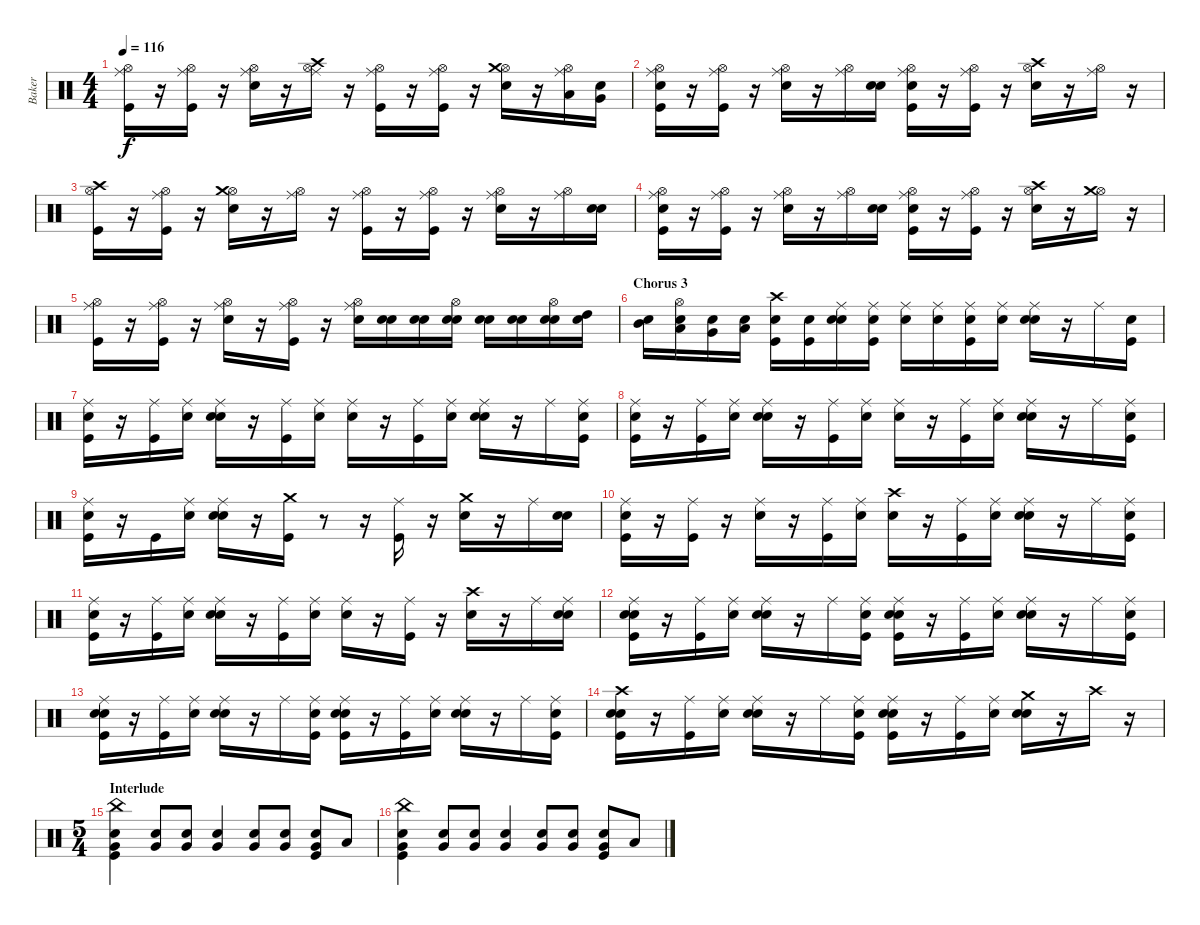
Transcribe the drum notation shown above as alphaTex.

\track ("Baker" "Baker") {instrument percussion}
\staff {score}
\articulation defaults
\ts (4 4)
\tempo 116
\clef neutral
\ks c
("Kick (hit)" "Hi-Hat (open)" "Ride (middle)").16{dy f} r.16 ("Kick (hit)" "Hi-Hat (open)" "Ride (middle)").16 r.16 ("Electric Snare (hit)" "Hi-Hat (open)" "Ride (middle)").16 r.16 ("Hi-Hat (open)" "Crash high (hit)" "Ride (middle)").16 r.16 ("Kick (hit)" "Hi-Hat (open)" "Ride (middle)").16 r.16 ("Kick (hit)" "Hi-Hat (open)" "Ride (middle)").16 r.16 ("Electric Snare (hit)" "Hi-Hat (open)" "Crash medium (hit)").16 r.16 ("Low Tom (hit)" "Hi-Hat (open)" "Ride (middle)").16 ("Snare (hit)" "Very Low Tom (hit)").16 |
("Snare (hit)" "Kick (hit)" "Hi-Hat (open)" "Ride (middle)").16 r.16 ("Kick (hit)" "Hi-Hat (open)" "Ride (middle)").16 r.16 ("Electric Snare (hit)" "Hi-Hat (open)" "Ride (middle)").16 r.16 ("Hi-Hat (open)" "Ride (middle)").16 ("Snare (hit)" "Electric Snare (hit)").16 ("Snare (hit)" "Kick (hit)" "Hi-Hat (open)" "Ride (middle)").16 r.16 ("Kick (hit)" "Hi-Hat (open)" "Ride (middle)").16 r.16 ("Electric Snare (hit)" "Hi-Hat (open)" "Crash high (hit)").16 r.16 ("Hi-Hat (open)" "Ride (middle)").16 r.16 |
("Kick (hit)" "Hi-Hat (open)" "Crash high (hit)").16 r.16 ("Kick (hit)" "Hi-Hat (open)" "Ride (middle)").16 r.16 ("Electric Snare (hit)" "Hi-Hat (open)" "Crash medium (hit)").16 r.16 ("Hi-Hat (open)" "Ride (middle)").16 r.16 ("Kick (hit)" "Hi-Hat (open)" "Ride (middle)").16 r.16 ("Kick (hit)" "Hi-Hat (open)" "Ride (middle)").16 r.16 ("Electric Snare (hit)" "Hi-Hat (open)" "Ride (middle)").16 r.16 ("Hi-Hat (open)" "Ride (middle)").16 ("Snare (hit)" "Electric Snare (hit)").16 |
("Snare (hit)" "Kick (hit)" "Hi-Hat (open)" "Ride (middle)").16 r.16 ("Kick (hit)" "Hi-Hat (open)" "Ride (middle)").16 r.16 ("Electric Snare (hit)" "Hi-Hat (open)" "Ride (middle)").16 r.16 ("Hi-Hat (open)" "Ride (middle)").16 ("Snare (hit)" "Electric Snare (hit)").16 ("Snare (hit)" "Kick (hit)" "Hi-Hat (open)" "Ride (middle)").16 r.16 ("Kick (hit)" "Hi-Hat (open)" "Ride (middle)").16 r.16 ("Electric Snare (hit)" "Hi-Hat (open)" "Crash high (hit)").16 r.16 ("Hi-Hat (open)" "Crash medium (hit)").16 r.16 |
("Kick (hit)" "Hi-Hat (open)" "Ride (middle)").16 r.16 ("Kick (hit)" "Hi-Hat (open)" "Ride (middle)").16 r.16 ("Electric Snare (hit)" "Hi-Hat (open)" "Ride (middle)").16 r.16 ("Kick (hit)" "Hi-Hat (open)" "Ride (middle)").16 r.16 ("Electric Snare (hit)" "Hi-Hat (open)" "Ride (middle)").16 ("Snare (hit)" "Electric Snare (hit)").16 ("Snare (hit)" "Electric Snare (hit)").16 ("Snare (hit)" "Electric Snare (hit)" "Hi-Hat (open)").16 ("Snare (hit)" "Electric Snare (hit)").16 ("Snare (hit)" "Electric Snare (hit)").16 ("Snare (hit)" "Electric Snare (hit)" "Hi-Hat (open)").16 ("Snare (hit)" "High Tom (hit)").16 |
\section ("" "Chorus 3")
("Snare (hit)" "Mid Tom (hit)").16 ("Snare (hit)" "Low Tom (hit)" "Hi-Hat (open)").16 ("Snare (hit)" "Very Low Tom (hit)").16 ("Snare (hit)" "Low Floor Tom (hit)").16 ("Snare (hit)" "Crash high (hit)" "Kick (hit)").16 ("Snare (hit)" "Kick (hit)").16 ("Snare (hit)" "Electric Snare (hit)" "Ride (middle)").16 ("Snare (hit)" "Kick (hit)" "Ride (middle)").16 ("Snare (hit)" "Ride (middle)").16 ("Snare (hit)" "Ride (middle)").16 ("Snare (hit)" "Kick (hit)" "Ride (middle)").16 ("Snare (hit)" "Ride (middle)").16 ("Snare (hit)" "Electric Snare (hit)" "Ride (middle)").16 r.16 "Ride (middle)".16 ("Snare (hit)" "Kick (hit)").16 |
("Snare (hit)" "Kick (hit)" "Ride (middle)").16 r.16 ("Kick (hit)" "Ride (middle)").16 ("Snare (hit)" "Ride (middle)").16 ("Snare (hit)" "Electric Snare (hit)" "Ride (middle)").16 r.16 ("Kick (hit)" "Ride (middle)").16 ("Snare (hit)" "Ride (middle)").16 ("Snare (hit)" "Ride (middle)").16 r.16 ("Kick (hit)" "Ride (middle)").16 ("Snare (hit)" "Ride (middle)").16 ("Snare (hit)" "Electric Snare (hit)" "Ride (middle)").16 r.16 "Ride (middle)".16 ("Snare (hit)" "Kick (hit)" "Ride (middle)").16 |
("Snare (hit)" "Kick (hit)" "Ride (middle)").16 r.16 ("Kick (hit)" "Ride (middle)").16 ("Snare (hit)" "Ride (middle)").16 ("Snare (hit)" "Electric Snare (hit)" "Ride (middle)").16 r.16 ("Kick (hit)" "Ride (middle)").16 ("Snare (hit)" "Ride (middle)").16 ("Snare (hit)" "Ride (middle)").16 r.16 ("Kick (hit)" "Ride (middle)").16 ("Snare (hit)" "Ride (middle)").16 ("Snare (hit)" "Electric Snare (hit)" "Ride (middle)").16 r.16 "Ride (middle)".16 ("Snare (hit)" "Kick (hit)" "Ride (middle)").16 |
("Snare (hit)" "Kick (hit)" "Ride (middle)").16 r.16 "Kick (hit)".16 ("Snare (hit)" "Ride (middle)").16 ("Snare (hit)" "Electric Snare (hit)" "Ride (middle)").16 r.16 ("Kick (hit)" "Crash medium (hit)").16 r.8 r.16 ("Kick (hit)" "Ride (middle)").16 r.16 ("Electric Snare (hit)" "Crash medium (hit)").16 r.16 "Ride (middle)".16 ("Snare (hit)" "Electric Snare (hit)").16 |
("Snare (hit)" "Kick (hit)" "Ride (middle)").16 r.16 ("Kick (hit)" "Ride (middle)").16 r.16 ("Electric Snare (hit)" "Ride (middle)").16 r.16 ("Kick (hit)" "Ride (middle)").16 ("Snare (hit)" "Ride (middle)").16 ("Snare (hit)" "Crash high (hit)").16 r.16 ("Kick (hit)" "Ride (middle)").16 ("Snare (hit)" "Ride (middle)").16 ("Snare (hit)" "Electric Snare (hit)" "Ride (middle)").16 r.16 "Ride (middle)".16 ("Snare (hit)" "Kick (hit)" "Ride (middle)").16 |
("Snare (hit)" "Kick (hit)" "Ride (middle)").16 r.16 ("Kick (hit)" "Ride (middle)").16 ("Snare (hit)" "Ride (middle)").16 ("Snare (hit)" "Electric Snare (hit)" "Ride (middle)").16 r.16 ("Kick (hit)" "Ride (middle)").16 ("Snare (hit)" "Ride (middle)").16 ("Snare (hit)" "Ride (middle)").16 r.16 ("Kick (hit)" "Ride (middle)").16 r.16 ("Electric Snare (hit)" "Crash high (hit)").16 r.16 "Ride (middle)".16 ("Snare (hit)" "Electric Snare (hit)" "Ride (middle)").16 |
("Snare (hit)" "Kick (hit)" "Electric Snare (hit)" "Ride (middle)").16 r.16 ("Kick (hit)" "Ride (middle)").16 ("Snare (hit)" "Ride (middle)").16 ("Snare (hit)" "Electric Snare (hit)" "Ride (middle)").16 r.16 "Ride (middle)".16 ("Snare (hit)" "Kick (hit)" "Ride (middle)").16 ("Snare (hit)" "Kick (hit)" "Electric Snare (hit)" "Ride (middle)").16 r.16 ("Kick (hit)" "Ride (middle)").16 ("Snare (hit)" "Ride (middle)").16 ("Snare (hit)" "Electric Snare (hit)" "Ride (middle)").16 r.16 "Ride (middle)".16 ("Snare (hit)" "Kick (hit)" "Ride (middle)").16 |
("Snare (hit)" "Kick (hit)" "Electric Snare (hit)" "Ride (middle)").16 r.16 ("Kick (hit)" "Ride (middle)").16 ("Snare (hit)" "Ride (middle)").16 ("Snare (hit)" "Electric Snare (hit)" "Ride (middle)").16 r.16 "Ride (middle)".16 ("Snare (hit)" "Kick (hit)" "Ride (middle)").16 ("Snare (hit)" "Kick (hit)" "Electric Snare (hit)" "Ride (middle)").16 r.16 ("Kick (hit)" "Ride (middle)").16 ("Snare (hit)" "Ride (middle)").16 ("Snare (hit)" "Electric Snare (hit)" "Ride (middle)").16 r.16 "Ride (middle)".16 ("Snare (hit)" "Kick (hit)" "Ride (middle)").16 |
("Snare (hit)" "Kick (hit)" "Electric Snare (hit)" "Crash high (hit)").16 r.16 ("Kick (hit)" "Ride (middle)").16 ("Snare (hit)" "Ride (middle)").16 ("Snare (hit)" "Electric Snare (hit)" "Ride (middle)").16 r.16 "Ride (middle)".16 ("Snare (hit)" "Kick (hit)" "Ride (middle)").16 ("Snare (hit)" "Kick (hit)" "Electric Snare (hit)" "Ride (middle)").16 r.16 ("Kick (hit)" "Ride (middle)").16 ("Snare (hit)" "Ride (middle)").16 ("Snare (hit)" "Electric Snare (hit)" "Crash medium (hit)").16 r.16 "Crash high (hit)".16 r.16 |
\ts (5 4)
\section ("" "Interlude")
("Kick (hit)" "Electric Snare (hit)" "Very Low Tom (hit)" "China (hit)").4 ("Electric Snare (hit)" "Very Low Tom (hit)").8 ("Electric Snare (hit)" "Very Low Tom (hit)").8 ("Electric Snare (hit)" "Very Low Tom (hit)").4 ("Electric Snare (hit)" "Very Low Tom (hit)").8 ("Electric Snare (hit)" "Very Low Tom (hit)").8 ("Kick (hit)" "Electric Snare (hit)" "Very Low Tom (hit)").8 "Low Floor Tom (hit)".8 |
("Kick (hit)" "Electric Snare (hit)" "Very Low Tom (hit)" "China (hit)").4 ("Electric Snare (hit)" "Very Low Tom (hit)").8 ("Electric Snare (hit)" "Very Low Tom (hit)").8 ("Electric Snare (hit)" "Very Low Tom (hit)").4 ("Electric Snare (hit)" "Very Low Tom (hit)").8 ("Electric Snare (hit)" "Very Low Tom (hit)").8 ("Kick (hit)" "Electric Snare (hit)" "Very Low Tom (hit)").8 "Low Floor Tom (hit)".8
